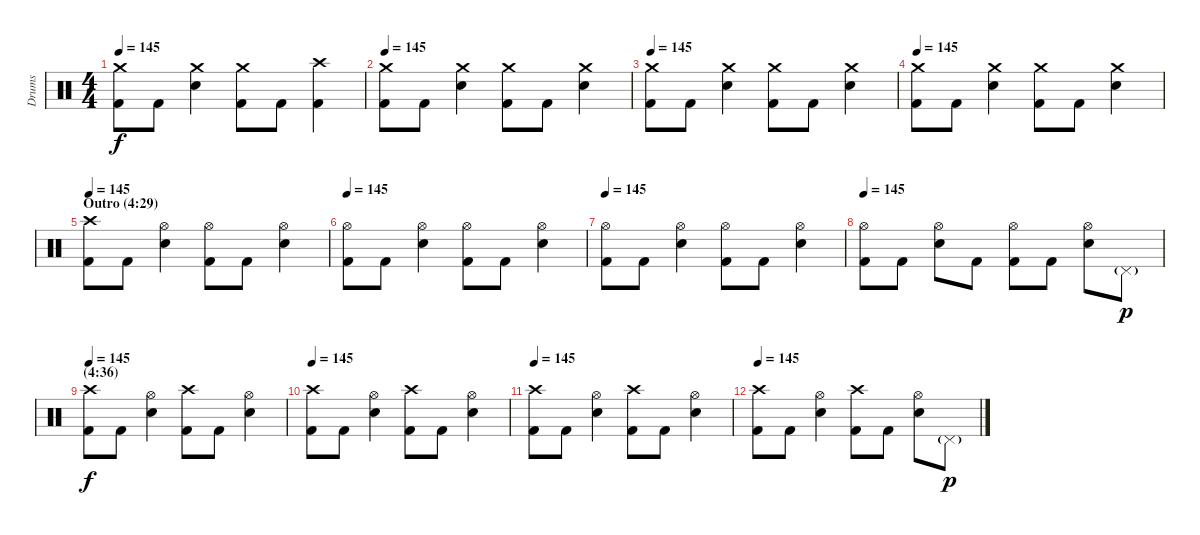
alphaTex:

\track ("Drums" "Drums") {instrument percussion}
\staff {score}
\articulation defaults
\ts (4 4)
\tempo 145
\clef neutral
\ks c
("Crash medium (hit)" "Kick (hit) 2").8{dy f} "Kick (hit) 2".8 ("Crash medium (hit)" "Snare (hit) 2").4 ("Crash medium (hit)" "Kick (hit) 2").8 "Kick (hit) 2".8 ("Crash high (hit)" "Kick (hit) 2").4 |
\tempo 145
("Crash medium (hit)" "Kick (hit) 2").8 "Kick (hit) 2".8 ("Crash medium (hit)" "Snare (hit) 2").4 ("Crash medium (hit)" "Kick (hit) 2").8 "Kick (hit) 2".8 ("Crash medium (hit)" "Snare (hit) 2").4 |
\tempo 145
("Crash medium (hit)" "Kick (hit) 2").8 "Kick (hit) 2".8 ("Crash medium (hit)" "Snare (hit) 2").4 ("Crash medium (hit)" "Kick (hit) 2").8 "Kick (hit) 2".8 ("Crash medium (hit)" "Snare (hit) 2").4 |
\tempo 145
("Crash medium (hit)" "Kick (hit) 2").8 "Kick (hit) 2".8 ("Crash medium (hit)" "Snare (hit) 2").4 ("Crash medium (hit)" "Kick (hit) 2").8 "Kick (hit) 2".8 ("Crash medium (hit)" "Snare (hit) 2").4 |
\section ("" "Outro (4:29)")
\tempo 145
("Crash high (hit)" "Kick (hit) 2").8 "Kick (hit) 2".8 ("Hi-Hat (open)" "Snare (hit) 2").4 ("Hi-Hat (open)" "Kick (hit) 2").8 "Kick (hit) 2".8 ("Hi-Hat (open)" "Snare (hit) 2").4 |
\tempo 145
("Hi-Hat (open)" "Kick (hit) 2").8 "Kick (hit) 2".8 ("Hi-Hat (open)" "Snare (hit) 2").4 ("Hi-Hat (open)" "Kick (hit) 2").8 "Kick (hit) 2".8 ("Hi-Hat (open)" "Snare (hit) 2").4 |
\tempo 145
("Hi-Hat (open)" "Kick (hit) 2").8 "Kick (hit) 2".8 ("Hi-Hat (open)" "Snare (hit) 2").4 ("Hi-Hat (open)" "Kick (hit) 2").8 "Kick (hit) 2".8 ("Hi-Hat (open)" "Snare (hit) 2").4 |
\tempo 145
("Hi-Hat (open)" "Kick (hit) 2").8 "Kick (hit) 2".8 ("Hi-Hat (open)" "Snare (hit) 2").8 "Kick (hit) 2".8 ("Hi-Hat (open)" "Kick (hit) 2").8 "Kick (hit) 2".8 ("Hi-Hat (open)" "Snare (hit) 2").8 "Pedal Hi-Hat (hit)"{g}.8{dy p} |
\section ("" "(4:36)")
\tempo 145
("Crash high (hit)" "Kick (hit) 2").8{dy f} "Kick (hit) 2".8 ("Hi-Hat (open)" "Snare (hit) 2").4 ("Crash high (hit)" "Kick (hit) 2").8 "Kick (hit) 2".8 ("Hi-Hat (open)" "Snare (hit) 2").4 |
\tempo 145
("Crash high (hit)" "Kick (hit) 2").8 "Kick (hit) 2".8 ("Hi-Hat (open)" "Snare (hit) 2").4 ("Crash high (hit)" "Kick (hit) 2").8 "Kick (hit) 2".8 ("Hi-Hat (open)" "Snare (hit) 2").4 |
\tempo 145
("Crash high (hit)" "Kick (hit) 2").8 "Kick (hit) 2".8 ("Hi-Hat (open)" "Snare (hit) 2").4 ("Crash high (hit)" "Kick (hit) 2").8 "Kick (hit) 2".8 ("Hi-Hat (open)" "Snare (hit) 2").4 |
\tempo 145
("Crash high (hit)" "Kick (hit) 2").8 "Kick (hit) 2".8 ("Hi-Hat (open)" "Snare (hit) 2").4 ("Crash high (hit)" "Kick (hit) 2").8 "Kick (hit) 2".8 ("Hi-Hat (open)" "Snare (hit) 2").8 "Pedal Hi-Hat (hit)"{g}.8{dy p}
